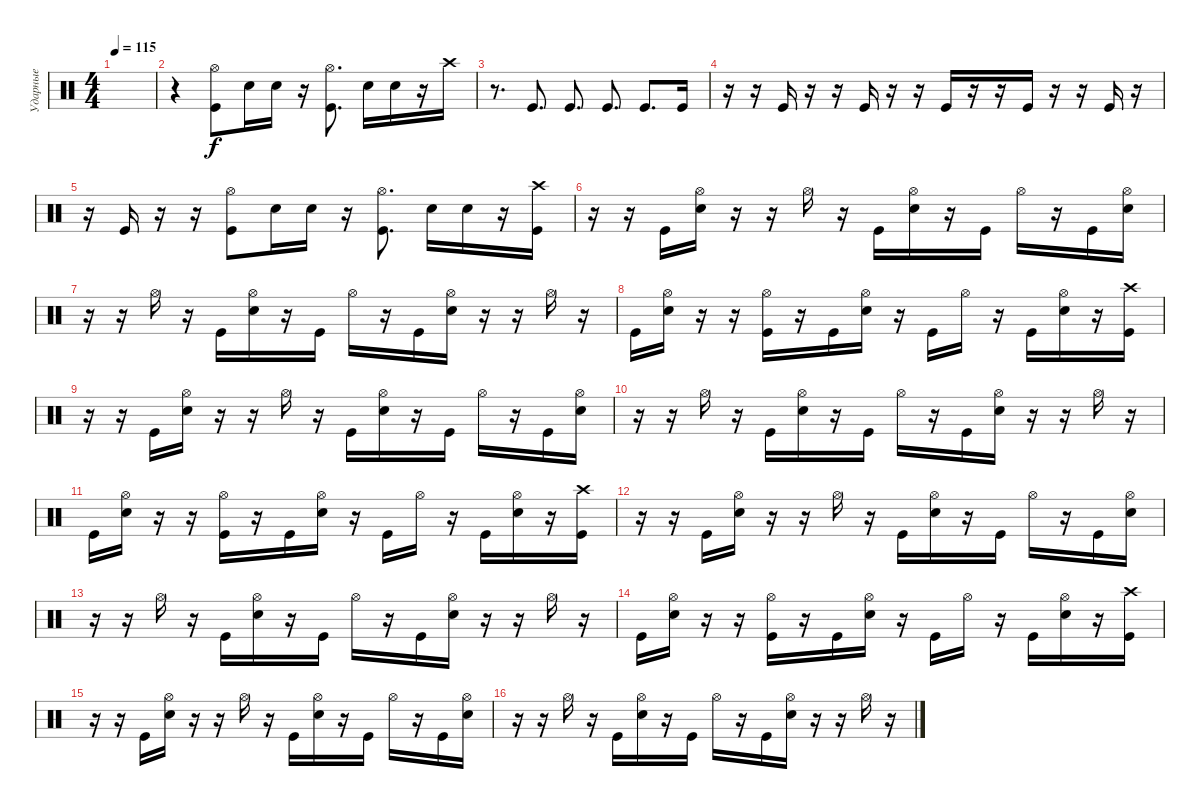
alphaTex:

\track ("Ударные" "Ударные") {instrument percussion}
\staff {score}
\articulation defaults
\ts (4 4)
\tempo 115
\clef neutral
\ks c
|
r.4 ("Hi-Hat (open)" "Kick (hit)").8 "Snare (hit) 2".16 "Snare (hit) 2".16 r.16 ("Hi-Hat (open)" "Kick (hit)").8{d} "Snare (hit) 2".16 "Snare (hit) 2".16 r.16 "Crash high (hit)".16 |
r.8{d} "Kick (hit)".8{d} "Kick (hit)".8{d} "Kick (hit)".8{d} "Kick (hit)".8{d} "Kick (hit)".16 |
r.16 r.16 "Kick (hit)".16 r.16 r.16 "Kick (hit)".16 r.16 r.16 "Kick (hit)".16 r.16 r.16 "Kick (hit)".16 r.16 r.16 "Kick (hit)".16 r.16 |
r.16 "Kick (hit)".16 r.16 r.16 ("Hi-Hat (open)" "Kick (hit)").8 "Snare (hit) 2".16 "Snare (hit) 2".16 r.16 ("Hi-Hat (open)" "Kick (hit)").8{d} "Snare (hit) 2".16 "Snare (hit) 2".16 r.16 ("Crash high (hit)" "Kick (hit)").16 |
r.16 r.16 "Kick (hit)".16 ("Hi-Hat (open)" "Snare (hit) 2").16 r.16 r.16 "Hi-Hat (open)".16 r.16 "Kick (hit)".16 ("Hi-Hat (open)" "Snare (hit) 2").16 r.16 "Kick (hit)".16 "Hi-Hat (open)".16 r.16 "Kick (hit)".16 ("Hi-Hat (open)" "Snare (hit) 2").16 |
r.16 r.16 "Hi-Hat (open)".16 r.16 "Kick (hit)".16 ("Hi-Hat (open)" "Snare (hit) 2").16 r.16 "Kick (hit)".16 "Hi-Hat (open)".16 r.16 "Kick (hit)".16 ("Hi-Hat (open)" "Snare (hit) 2").16 r.16 r.16 "Hi-Hat (open)".16 r.16 |
"Kick (hit)".16 ("Hi-Hat (open)" "Snare (hit) 2").16 r.16 r.16 ("Hi-Hat (open)" "Kick (hit)").16 r.16 "Kick (hit)".16 ("Hi-Hat (open)" "Snare (hit) 2").16 r.16 "Kick (hit)".16 "Hi-Hat (open)".16 r.16 "Kick (hit)".16 ("Hi-Hat (open)" "Snare (hit) 2").16 r.16 ("Crash high (hit)" "Kick (hit)").16 |
r.16 r.16 "Kick (hit)".16 ("Hi-Hat (open)" "Snare (hit) 2").16 r.16 r.16 "Hi-Hat (open)".16 r.16 "Kick (hit)".16 ("Hi-Hat (open)" "Snare (hit) 2").16 r.16 "Kick (hit)".16 "Hi-Hat (open)".16 r.16 "Kick (hit)".16 ("Hi-Hat (open)" "Snare (hit) 2").16 |
r.16 r.16 "Hi-Hat (open)".16 r.16 "Kick (hit)".16 ("Hi-Hat (open)" "Snare (hit) 2").16 r.16 "Kick (hit)".16 "Hi-Hat (open)".16 r.16 "Kick (hit)".16 ("Hi-Hat (open)" "Snare (hit) 2").16 r.16 r.16 "Hi-Hat (open)".16 r.16 |
"Kick (hit)".16 ("Hi-Hat (open)" "Snare (hit) 2").16 r.16 r.16 ("Hi-Hat (open)" "Kick (hit)").16 r.16 "Kick (hit)".16 ("Hi-Hat (open)" "Snare (hit) 2").16 r.16 "Kick (hit)".16 "Hi-Hat (open)".16 r.16 "Kick (hit)".16 ("Hi-Hat (open)" "Snare (hit) 2").16 r.16 ("Crash high (hit)" "Kick (hit)").16 |
r.16 r.16 "Kick (hit)".16 ("Hi-Hat (open)" "Snare (hit) 2").16 r.16 r.16 "Hi-Hat (open)".16 r.16 "Kick (hit)".16 ("Hi-Hat (open)" "Snare (hit) 2").16 r.16 "Kick (hit)".16 "Hi-Hat (open)".16 r.16 "Kick (hit)".16 ("Hi-Hat (open)" "Snare (hit) 2").16 |
r.16 r.16 "Hi-Hat (open)".16 r.16 "Kick (hit)".16 ("Hi-Hat (open)" "Snare (hit) 2").16 r.16 "Kick (hit)".16 "Hi-Hat (open)".16 r.16 "Kick (hit)".16 ("Hi-Hat (open)" "Snare (hit) 2").16 r.16 r.16 "Hi-Hat (open)".16 r.16 |
"Kick (hit)".16 ("Hi-Hat (open)" "Snare (hit) 2").16 r.16 r.16 ("Hi-Hat (open)" "Kick (hit)").16 r.16 "Kick (hit)".16 ("Hi-Hat (open)" "Snare (hit) 2").16 r.16 "Kick (hit)".16 "Hi-Hat (open)".16 r.16 "Kick (hit)".16 ("Hi-Hat (open)" "Snare (hit) 2").16 r.16 ("Crash high (hit)" "Kick (hit)").16 |
r.16 r.16 "Kick (hit)".16 ("Hi-Hat (open)" "Snare (hit) 2").16 r.16 r.16 "Hi-Hat (open)".16 r.16 "Kick (hit)".16 ("Hi-Hat (open)" "Snare (hit) 2").16 r.16 "Kick (hit)".16 "Hi-Hat (open)".16 r.16 "Kick (hit)".16 ("Hi-Hat (open)" "Snare (hit) 2").16 |
r.16 r.16 "Hi-Hat (open)".16 r.16 "Kick (hit)".16 ("Hi-Hat (open)" "Snare (hit) 2").16 r.16 "Kick (hit)".16 "Hi-Hat (open)".16 r.16 "Kick (hit)".16 ("Hi-Hat (open)" "Snare (hit) 2").16 r.16 r.16 "Hi-Hat (open)".16 r.16
